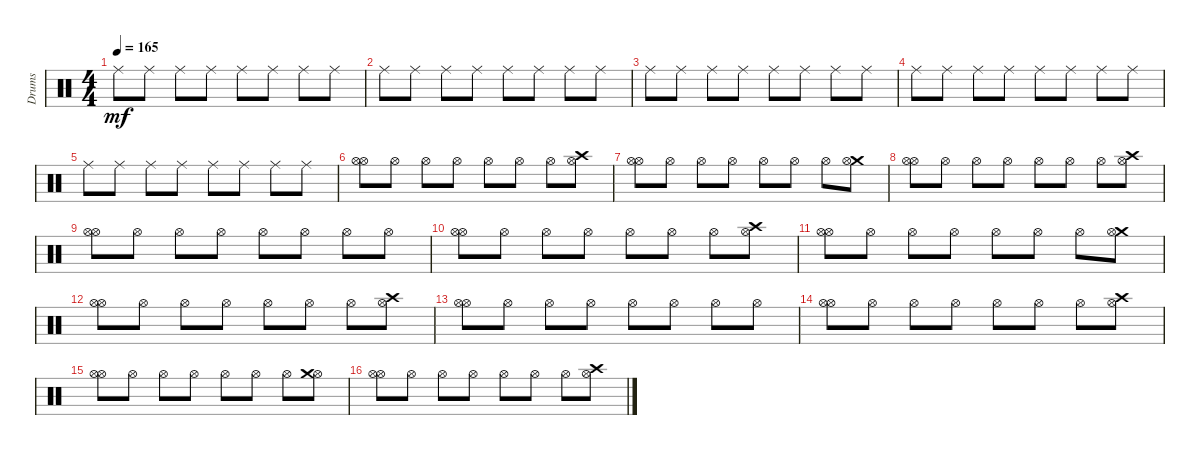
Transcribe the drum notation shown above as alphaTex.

\track ("Drums" "Drums") {instrument percussion}
\staff {score}
\articulation defaults
\ts (4 4)
\tempo 165
\clef neutral
\ks c "Ride (middle)".8{dy mf} "Ride (middle)".8 "Ride (middle)".8 "Ride (middle)".8 "Ride (middle)".8 "Ride (middle)".8 "Ride (middle)".8 "Ride (middle)".8
|
"Ride (middle)".8 "Ride (middle)".8 "Ride (middle)".8 "Ride (middle)".8 "Ride (middle)".8 "Ride (middle)".8 "Ride (middle)".8 "Ride (middle)".8 |
"Ride (middle)".8 "Ride (middle)".8 "Ride (middle)".8 "Ride (middle)".8 "Ride (middle)".8 "Ride (middle)".8 "Ride (middle)".8 "Ride (middle)".8 |
"Ride (middle)".8 "Ride (middle)".8 "Ride (middle)".8 "Ride (middle)".8 "Ride (middle)".8 "Ride (middle)".8 "Ride (middle)".8 "Ride (middle)".8 |
"Ride (middle)".8 "Ride (middle)".8 "Ride (middle)".8 "Ride (middle)".8 "Ride (middle)".8 "Ride (middle)".8 "Ride (middle)".8 "Ride (middle)".8 |
("Hi-Hat (open)" "Hi-Hat (open)").8 "Hi-Hat (open)".8 "Hi-Hat (open)".8 "Hi-Hat (open)".8 "Hi-Hat (open)".8 "Hi-Hat (open)".8 "Hi-Hat (open)".8 ("Crash high (hit)" "Hi-Hat (open)").8 |
("Hi-Hat (open)" "Hi-Hat (open)").8 "Hi-Hat (open)".8 "Hi-Hat (open)".8 "Hi-Hat (open)".8 "Hi-Hat (open)".8 "Hi-Hat (open)".8 "Hi-Hat (open)".8 ("Crash medium (hit)" "Hi-Hat (open)").8 |
("Hi-Hat (open)" "Hi-Hat (open)").8 "Hi-Hat (open)".8 "Hi-Hat (open)".8 "Hi-Hat (open)".8 "Hi-Hat (open)".8 "Hi-Hat (open)".8 "Hi-Hat (open)".8 ("Hi-Hat (open)" "Crash high (hit)").8 |
("Hi-Hat (open)" "Hi-Hat (open)").8 "Hi-Hat (open)".8 "Hi-Hat (open)".8 "Hi-Hat (open)".8 "Hi-Hat (open)".8 "Hi-Hat (open)".8 "Hi-Hat (open)".8 "Hi-Hat (open)".8 |
("Hi-Hat (open)" "Hi-Hat (open)").8 "Hi-Hat (open)".8 "Hi-Hat (open)".8 "Hi-Hat (open)".8 "Hi-Hat (open)".8 "Hi-Hat (open)".8 "Hi-Hat (open)".8 ("Crash high (hit)" "Hi-Hat (open)").8 |
("Hi-Hat (open)" "Hi-Hat (open)").8 "Hi-Hat (open)".8 "Hi-Hat (open)".8 "Hi-Hat (open)".8 "Hi-Hat (open)".8 "Hi-Hat (open)".8 "Hi-Hat (open)".8 ("Crash medium (hit)" "Hi-Hat (open)").8 |
("Hi-Hat (open)" "Hi-Hat (open)").8 "Hi-Hat (open)".8 "Hi-Hat (open)".8 "Hi-Hat (open)".8 "Hi-Hat (open)".8 "Hi-Hat (open)".8 "Hi-Hat (open)".8 ("Crash high (hit)" "Hi-Hat (open)").8 |
("Hi-Hat (open)" "Hi-Hat (open)").8 "Hi-Hat (open)".8 "Hi-Hat (open)".8 "Hi-Hat (open)".8 "Hi-Hat (open)".8 "Hi-Hat (open)".8 "Hi-Hat (open)".8 "Hi-Hat (open)".8 |
("Hi-Hat (open)" "Hi-Hat (open)").8 "Hi-Hat (open)".8 "Hi-Hat (open)".8 "Hi-Hat (open)".8 "Hi-Hat (open)".8 "Hi-Hat (open)".8 "Hi-Hat (open)".8 ("Hi-Hat (open)" "Crash high (hit)").8 |
("Hi-Hat (open)" "Hi-Hat (open)").8 "Hi-Hat (open)".8 "Hi-Hat (open)".8 "Hi-Hat (open)".8 "Hi-Hat (open)".8 "Hi-Hat (open)".8 "Hi-Hat (open)".8 ("Hi-Hat (open)" "Crash medium (hit)").8 |
("Hi-Hat (open)" "Hi-Hat (open)").8 "Hi-Hat (open)".8 "Hi-Hat (open)".8 "Hi-Hat (open)".8 "Hi-Hat (open)".8 "Hi-Hat (open)".8 "Hi-Hat (open)".8 ("Hi-Hat (open)" "Crash high (hit)").8
